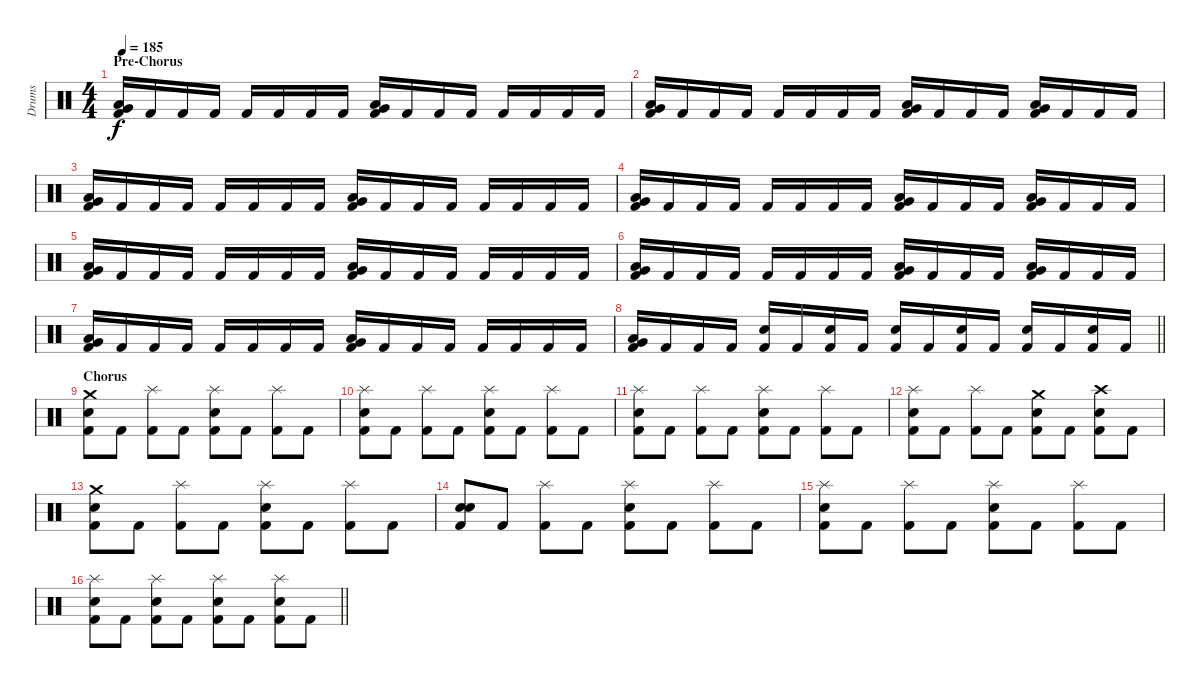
\track ("Drums" "Drums") {instrument percussion}
\staff {score}
\articulation defaults
\ts (4 4)
\section ("" "Pre-Chorus")
\tempo 185
\clef neutral
\ks c
("Kick (hit) 2" "Very Low Tom (hit)" "Low Floor Tom (hit)").16{dy f} "Kick (hit) 2".16 "Kick (hit) 2".16 "Kick (hit) 2".16 "Kick (hit) 2".16 "Kick (hit) 2".16 "Kick (hit) 2".16 "Kick (hit) 2".16 ("Kick (hit) 2" "Very Low Tom (hit)" "Low Floor Tom (hit)").16 "Kick (hit) 2".16 "Kick (hit) 2".16 "Kick (hit) 2".16 "Kick (hit) 2".16 "Kick (hit) 2".16 "Kick (hit) 2".16 "Kick (hit) 2".16 |
("Kick (hit) 2" "Very Low Tom (hit)" "Low Floor Tom (hit)").16 "Kick (hit) 2".16 "Kick (hit) 2".16 "Kick (hit) 2".16 "Kick (hit) 2".16 "Kick (hit) 2".16 "Kick (hit) 2".16 "Kick (hit) 2".16 ("Kick (hit) 2" "Very Low Tom (hit)" "Low Floor Tom (hit)").16 "Kick (hit) 2".16 "Kick (hit) 2".16 "Kick (hit) 2".16 ("Kick (hit) 2" "Very Low Tom (hit)" "Low Floor Tom (hit)").16 "Kick (hit) 2".16 "Kick (hit) 2".16 "Kick (hit) 2".16 |
("Kick (hit) 2" "Very Low Tom (hit)" "Low Floor Tom (hit)").16 "Kick (hit) 2".16 "Kick (hit) 2".16 "Kick (hit) 2".16 "Kick (hit) 2".16 "Kick (hit) 2".16 "Kick (hit) 2".16 "Kick (hit) 2".16 ("Kick (hit) 2" "Very Low Tom (hit)" "Low Floor Tom (hit)").16 "Kick (hit) 2".16 "Kick (hit) 2".16 "Kick (hit) 2".16 "Kick (hit) 2".16 "Kick (hit) 2".16 "Kick (hit) 2".16 "Kick (hit) 2".16 |
("Kick (hit) 2" "Very Low Tom (hit)" "Low Floor Tom (hit)").16 "Kick (hit) 2".16 "Kick (hit) 2".16 "Kick (hit) 2".16 "Kick (hit) 2".16 "Kick (hit) 2".16 "Kick (hit) 2".16 "Kick (hit) 2".16 ("Kick (hit) 2" "Very Low Tom (hit)" "Low Floor Tom (hit)").16 "Kick (hit) 2".16 "Kick (hit) 2".16 "Kick (hit) 2".16 ("Kick (hit) 2" "Very Low Tom (hit)" "Low Floor Tom (hit)").16 "Kick (hit) 2".16 "Kick (hit) 2".16 "Kick (hit) 2".16 |
("Kick (hit) 2" "Very Low Tom (hit)" "Low Floor Tom (hit)").16 "Kick (hit) 2".16 "Kick (hit) 2".16 "Kick (hit) 2".16 "Kick (hit) 2".16 "Kick (hit) 2".16 "Kick (hit) 2".16 "Kick (hit) 2".16 ("Kick (hit) 2" "Very Low Tom (hit)" "Low Floor Tom (hit)").16 "Kick (hit) 2".16 "Kick (hit) 2".16 "Kick (hit) 2".16 "Kick (hit) 2".16 "Kick (hit) 2".16 "Kick (hit) 2".16 "Kick (hit) 2".16 |
("Kick (hit) 2" "Very Low Tom (hit)" "Low Floor Tom (hit)").16 "Kick (hit) 2".16 "Kick (hit) 2".16 "Kick (hit) 2".16 "Kick (hit) 2".16 "Kick (hit) 2".16 "Kick (hit) 2".16 "Kick (hit) 2".16 ("Kick (hit) 2" "Very Low Tom (hit)" "Low Floor Tom (hit)").16 "Kick (hit) 2".16 "Kick (hit) 2".16 "Kick (hit) 2".16 ("Kick (hit) 2" "Very Low Tom (hit)" "Low Floor Tom (hit)").16 "Kick (hit) 2".16 "Kick (hit) 2".16 "Kick (hit) 2".16 |
("Kick (hit) 2" "Very Low Tom (hit)" "Low Floor Tom (hit)").16 "Kick (hit) 2".16 "Kick (hit) 2".16 "Kick (hit) 2".16 "Kick (hit) 2".16 "Kick (hit) 2".16 "Kick (hit) 2".16 "Kick (hit) 2".16 ("Kick (hit) 2" "Very Low Tom (hit)" "Low Floor Tom (hit)").16 "Kick (hit) 2".16 "Kick (hit) 2".16 "Kick (hit) 2".16 "Kick (hit) 2".16 "Kick (hit) 2".16 "Kick (hit) 2".16 "Kick (hit) 2".16 |
\barLineRight lightlight
("Kick (hit) 2" "Very Low Tom (hit)" "Low Floor Tom (hit)").16 "Kick (hit) 2".16 "Kick (hit) 2".16 "Kick (hit) 2".16 ("Kick (hit) 2" "Snare (hit) 2").16 "Kick (hit) 2".16 ("Kick (hit) 2" "Snare (hit) 2").16 "Kick (hit) 2".16 ("Kick (hit) 2" "Snare (hit) 2").16 "Kick (hit) 2".16 ("Kick (hit) 2" "Snare (hit) 2").16 "Kick (hit) 2".16 ("Kick (hit) 2" "Snare (hit) 2").16 "Kick (hit) 2".16 ("Kick (hit) 2" "Snare (hit) 2").16 "Kick (hit) 2".16 |
\section ("" "Chorus")
("Kick (hit) 2" "Snare (hit) 2" "Crash medium (hit)").8 "Kick (hit) 2".8 ("Kick (hit) 2" "Splash (hit)").8 "Kick (hit) 2".8 ("Kick (hit) 2" "Snare (hit) 2" "Splash (hit)").8 "Kick (hit) 2".8 ("Kick (hit) 2" "Splash (hit)").8 "Kick (hit) 2".8 |
("Kick (hit) 2" "Snare (hit) 2" "Splash (hit)").8 "Kick (hit) 2".8 ("Kick (hit) 2" "Splash (hit)").8 "Kick (hit) 2".8 ("Kick (hit) 2" "Snare (hit) 2" "Splash (hit)").8 "Kick (hit) 2".8 ("Kick (hit) 2" "Splash (hit)").8 "Kick (hit) 2".8 |
("Kick (hit) 2" "Snare (hit) 2" "Splash (hit)").8 "Kick (hit) 2".8 ("Kick (hit) 2" "Splash (hit)").8 "Kick (hit) 2".8 ("Kick (hit) 2" "Snare (hit) 2" "Splash (hit)").8 "Kick (hit) 2".8 ("Kick (hit) 2" "Splash (hit)").8 "Kick (hit) 2".8 |
("Kick (hit) 2" "Snare (hit) 2" "Splash (hit)").8 "Kick (hit) 2".8 ("Kick (hit) 2" "Splash (hit)").8 "Kick (hit) 2".8 ("Kick (hit) 2" "Snare (hit) 2" "Crash medium (hit)").8 "Kick (hit) 2".8 ("Kick (hit) 2" "Snare (hit) 2" "Crash high (hit)").8 "Kick (hit) 2".8 |
("Kick (hit) 2" "Snare (hit) 2" "Crash medium (hit)").8 "Kick (hit) 2".8 ("Kick (hit) 2" "Splash (hit)").8 "Kick (hit) 2".8 ("Kick (hit) 2" "Snare (hit) 2" "Splash (hit)").8 "Kick (hit) 2".8 ("Kick (hit) 2" "Splash (hit)").8 "Kick (hit) 2".8 |
("Kick (hit) 2" "Snare (hit) 2" "Snare (hit) 2").8 "Kick (hit) 2".8 ("Kick (hit) 2" "Splash (hit)").8 "Kick (hit) 2".8 ("Kick (hit) 2" "Snare (hit) 2" "Splash (hit)").8 "Kick (hit) 2".8 ("Kick (hit) 2" "Splash (hit)").8 "Kick (hit) 2".8 |
("Kick (hit) 2" "Snare (hit) 2" "Splash (hit)").8 "Kick (hit) 2".8 ("Kick (hit) 2" "Splash (hit)").8 "Kick (hit) 2".8 ("Kick (hit) 2" "Snare (hit) 2" "Splash (hit)").8 "Kick (hit) 2".8 ("Kick (hit) 2" "Splash (hit)").8 "Kick (hit) 2".8 |
\barLineRight lightlight
("Kick (hit) 2" "Snare (hit) 2" "Splash (hit)").8 "Kick (hit) 2".8 ("Kick (hit) 2" "Snare (hit) 2" "Splash (hit)").8 "Kick (hit) 2".8 ("Kick (hit) 2" "Snare (hit) 2" "Splash (hit)").8 "Kick (hit) 2".8 ("Kick (hit) 2" "Snare (hit) 2" "Splash (hit)").8 "Kick (hit) 2".8
